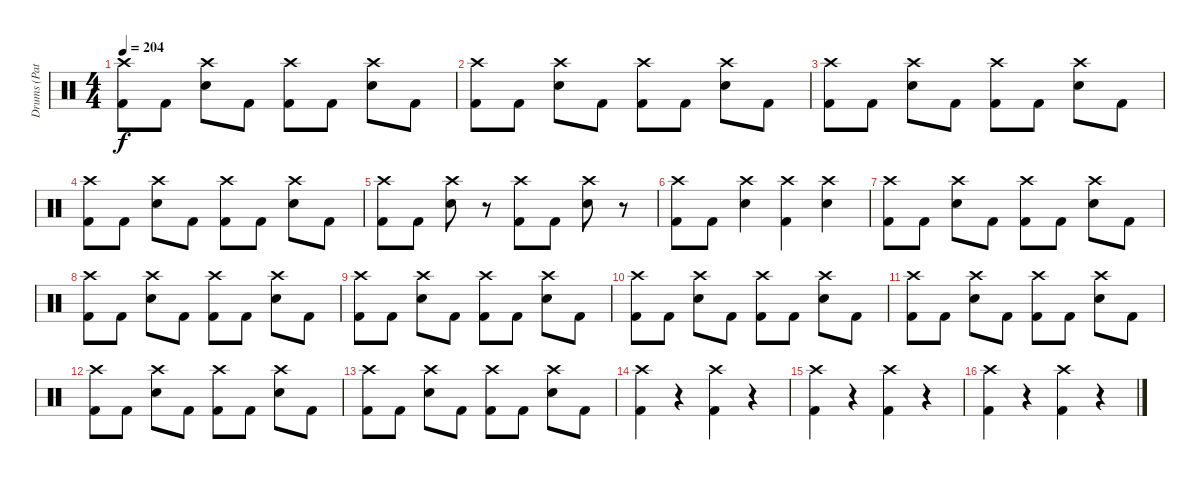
\track ("Drums (Patrick Johansson)" "Drums (Pat") {instrument percussion}
\staff {score}
\articulation defaults
\ts (4 4)
\tempo 204
\clef neutral
\ks c
("Crash high (hit)" "Kick (hit) 2").8{dy f} "Kick (hit) 2".8 ("Crash high (hit)" "Electric Snare (hit)").8 "Kick (hit) 2".8 ("Crash high (hit)" "Kick (hit) 2").8 "Kick (hit) 2".8 ("Crash high (hit)" "Electric Snare (hit)").8 "Kick (hit) 2".8 |
("Crash high (hit)" "Kick (hit) 2").8 "Kick (hit) 2".8 ("Crash high (hit)" "Electric Snare (hit)").8 "Kick (hit) 2".8 ("Crash high (hit)" "Kick (hit) 2").8 "Kick (hit) 2".8 ("Crash high (hit)" "Electric Snare (hit)").8 "Kick (hit) 2".8 |
("Crash high (hit)" "Kick (hit) 2").8 "Kick (hit) 2".8 ("Crash high (hit)" "Electric Snare (hit)").8 "Kick (hit) 2".8 ("Crash high (hit)" "Kick (hit) 2").8 "Kick (hit) 2".8 ("Crash high (hit)" "Electric Snare (hit)").8 "Kick (hit) 2".8 |
("Crash high (hit)" "Kick (hit) 2").8 "Kick (hit) 2".8 ("Crash high (hit)" "Electric Snare (hit)").8 "Kick (hit) 2".8 ("Crash high (hit)" "Kick (hit) 2").8 "Kick (hit) 2".8 ("Crash high (hit)" "Electric Snare (hit)").8 "Kick (hit) 2".8 |
("Crash high (hit)" "Kick (hit) 2").8 "Kick (hit) 2".8 ("Crash high (hit)" "Electric Snare (hit)").8 r.8 ("Crash high (hit)" "Kick (hit) 2").8 "Kick (hit) 2".8 ("Crash high (hit)" "Electric Snare (hit)").8 r.8 |
("Crash high (hit)" "Kick (hit) 2").8 "Kick (hit) 2".8 ("Crash high (hit)" "Electric Snare (hit)").4 ("Crash high (hit)" "Kick (hit) 2").4 ("Crash high (hit)" "Electric Snare (hit)").4 |
("Crash high (hit)" "Kick (hit) 2").8 "Kick (hit) 2".8 ("Crash high (hit)" "Electric Snare (hit)").8 "Kick (hit) 2".8 ("Crash high (hit)" "Kick (hit) 2").8 "Kick (hit) 2".8 ("Crash high (hit)" "Electric Snare (hit)").8 "Kick (hit) 2".8 |
("Crash high (hit)" "Kick (hit) 2").8 "Kick (hit) 2".8 ("Crash high (hit)" "Electric Snare (hit)").8 "Kick (hit) 2".8 ("Crash high (hit)" "Kick (hit) 2").8 "Kick (hit) 2".8 ("Crash high (hit)" "Electric Snare (hit)").8 "Kick (hit) 2".8 |
("Crash high (hit)" "Kick (hit) 2").8 "Kick (hit) 2".8 ("Crash high (hit)" "Electric Snare (hit)").8 "Kick (hit) 2".8 ("Crash high (hit)" "Kick (hit) 2").8 "Kick (hit) 2".8 ("Crash high (hit)" "Electric Snare (hit)").8 "Kick (hit) 2".8 |
("Crash high (hit)" "Kick (hit) 2").8 "Kick (hit) 2".8 ("Crash high (hit)" "Electric Snare (hit)").8 "Kick (hit) 2".8 ("Crash high (hit)" "Kick (hit) 2").8 "Kick (hit) 2".8 ("Crash high (hit)" "Electric Snare (hit)").8 "Kick (hit) 2".8 |
("Crash high (hit)" "Kick (hit) 2").8 "Kick (hit) 2".8 ("Crash high (hit)" "Electric Snare (hit)").8 "Kick (hit) 2".8 ("Crash high (hit)" "Kick (hit) 2").8 "Kick (hit) 2".8 ("Crash high (hit)" "Electric Snare (hit)").8 "Kick (hit) 2".8 |
("Crash high (hit)" "Kick (hit) 2").8 "Kick (hit) 2".8 ("Crash high (hit)" "Electric Snare (hit)").8 "Kick (hit) 2".8 ("Crash high (hit)" "Kick (hit) 2").8 "Kick (hit) 2".8 ("Crash high (hit)" "Electric Snare (hit)").8 "Kick (hit) 2".8 |
("Crash high (hit)" "Kick (hit) 2").8 "Kick (hit) 2".8 ("Crash high (hit)" "Electric Snare (hit)").8 "Kick (hit) 2".8 ("Crash high (hit)" "Kick (hit) 2").8 "Kick (hit) 2".8 ("Crash high (hit)" "Electric Snare (hit)").8 "Kick (hit) 2".8 |
("Crash high (hit)" "Kick (hit) 2").4 r.4 ("Crash high (hit)" "Kick (hit) 2").4 r.4 |
("Crash high (hit)" "Kick (hit) 2").4 r.4 ("Crash high (hit)" "Kick (hit) 2").4 r.4 |
("Crash high (hit)" "Kick (hit) 2").4 r.4 ("Crash high (hit)" "Kick (hit) 2").4 r.4
